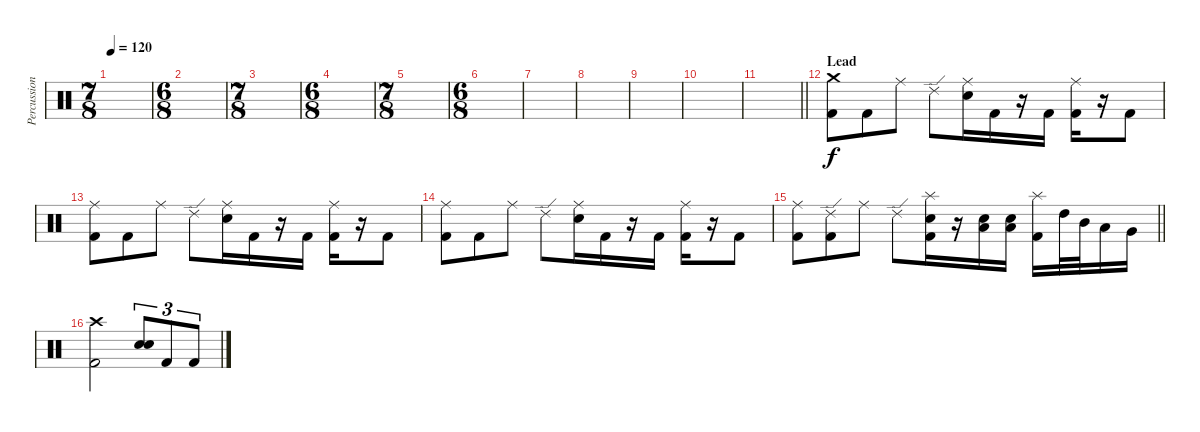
\track ("Percussion" "Percussion") {instrument percussion}
\staff {score}
\articulation defaults
\ts (7 8)
\tempo 120
\clef neutral
\ks c
|
\ts (6 8)
|
\ts (7 8)
|
\ts (6 8)
|
\ts (7 8)
|
\ts (6 8)
|
|
|
|
|
\barLineRight lightlight
|
\section ("" "Lead")
("Crash medium (hit)" "Kick (hit) 2").8 "Kick (hit) 2".8 "Ride (middle)".8 "Ride (edge) 2".8 ("Ride (middle)" "Electric Snare (hit)").16 "Kick (hit) 2".16 r.16 "Kick (hit) 2".16 ("Ride (middle)" "Kick (hit) 2").16 r.16 "Kick (hit) 2".8 |
("Ride (middle)" "Kick (hit) 2").8 "Kick (hit) 2".8 "Ride (middle)".8 "Ride (edge) 2".8 ("Ride (middle)" "Electric Snare (hit)").16 "Kick (hit) 2".16 r.16 "Kick (hit) 2".16 ("Ride (middle)" "Kick (hit) 2").16 r.16 "Kick (hit) 2".8 |
("Ride (middle)" "Kick (hit) 2").8 "Kick (hit) 2".8 "Ride (middle)".8 "Ride (edge) 2".8 ("Ride (middle)" "Electric Snare (hit)").16 "Kick (hit) 2".16 r.16 "Kick (hit) 2".16 ("Ride (middle)" "Kick (hit) 2").16 r.16 "Kick (hit) 2".8 |
\barLineRight lightlight
("Ride (middle)" "Kick (hit) 2").8 ("Ride (edge) 2" "Kick (hit) 2").8 "Ride (middle)".8 "Ride (edge) 2".8 ("Splash (hit)" "Electric Snare (hit)" "Kick (hit) 2").16 r.16 ("Low Floor Tom (hit)" "Electric Snare (hit)").16 ("Low Floor Tom (hit)" "Electric Snare (hit)").16 ("Splash (hit)" "Kick (hit) 2").16 "High Tom (hit)".32 "Mid Tom (hit)".32 "Low Tom (hit)".16 "Very Low Tom (hit)".16 |
("Crash high (hit)" "Kick (hit) 2").2 ("Electric Snare (hit)" "Electric Snare (hit)").8{tu (3 2) bd 120} "Kick (hit) 2".8{tu (3 2)} "Kick (hit) 2".8{tu (3 2)}
